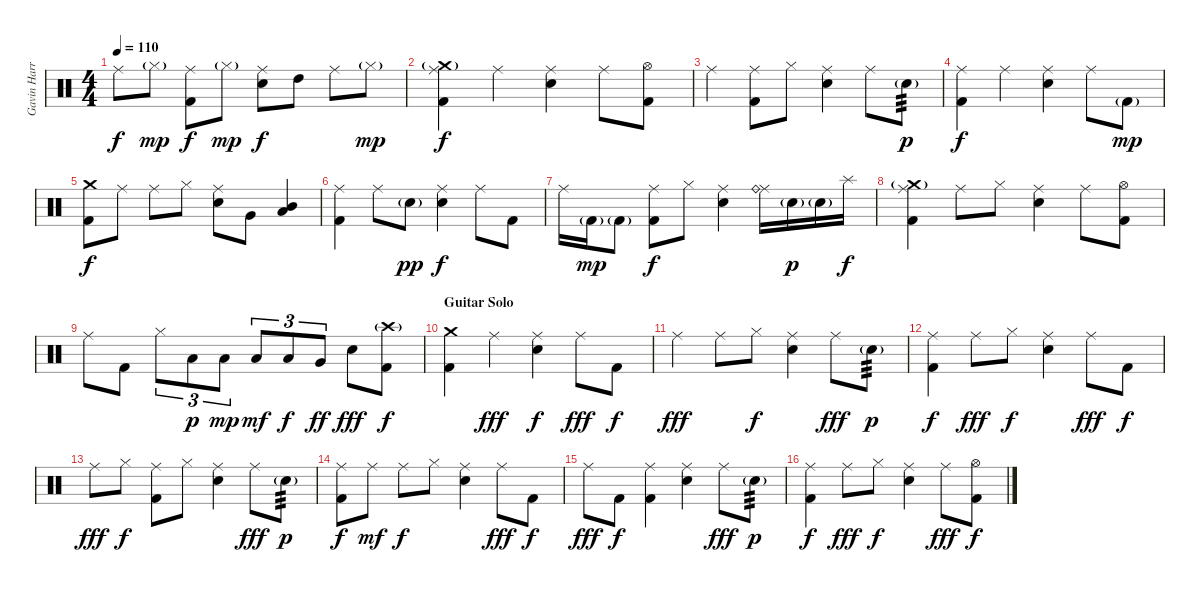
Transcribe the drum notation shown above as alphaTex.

\track ("Gavin Harrison - Drums" "Gavin Harr") {instrument percussion}
\staff {score}
\articulation defaults
\ts (4 4)
\tempo 110
\clef neutral
\ks c "Ride (middle)".8{dy f} "Hi-Hat (closed)"{g}.8{dy mp}
("Ride (middle)" "Kick (hit) 2").8{dy f} "Hi-Hat (closed)"{g}.8{dy mp} ("Ride (middle)" "Electric Snare (hit)").8{dy f} "High Tom (hit)".8 "Ride (middle)".8 "Hi-Hat (closed)"{g}.8{dy mp} |
("Ride (middle)" "Crash medium (hit)"{g} "Kick (hit) 2").4{dy f} "Ride (middle)".4 ("Ride (middle)" "Electric Snare (hit)").4 "Ride (middle)".8 ("Hi-Hat (open)" "Kick (hit) 2").8 |
"Ride (middle)".4 ("Ride (middle)" "Kick (hit) 2").8 "Hi-Hat (closed)".8 ("Ride (middle)" "Electric Snare (hit)").4 "Ride (middle)".8 "Electric Snare (hit)"{g}.8{tp 3 dy p} |
("Ride (middle)" "Kick (hit) 2").4{dy f} "Ride (middle)".4 ("Ride (middle)" "Electric Snare (hit)").4 "Ride (middle)".8 "Kick (hit) 2"{g}.8{dy mp} |
("Crash medium (hit)" "Kick (hit) 2").8{dy f} "Ride (middle)".8 "Ride (middle)".8 "Hi-Hat (closed)".8 ("Ride (middle)" "Electric Snare (hit)").8 "Very Low Tom (hit)".8 ("Mid Tom (hit)" "Low Tom (hit)").4 |
("Ride (middle)" "Kick (hit) 2").4 "Ride (middle)".8 "Electric Snare (hit)"{g}.8{dy pp} ("Ride (middle)" "Electric Snare (hit)").4{dy f} "Ride (middle)".8 "Kick (hit) 2".8 |
"Ride (middle)".16 "Kick (hit) 2"{g}.16{dy mp} "Kick (hit) 2"{g}.8 ("Ride (middle)" "Kick (hit) 2").8{dy f} "Hi-Hat (closed)".8 ("Ride (middle)" "Electric Snare (hit)").4 ("Ride (middle)" "Ride (bell)").16 "Electric Snare (hit)"{g}.16{dy p} "Electric Snare (hit)"{g}.16 "Splash (hit)".16{dy f} |
("Ride (middle)" "Crash medium (hit)"{g} "Kick (hit) 2").4 "Ride (middle)".8 "Hi-Hat (closed)".8 ("Ride (middle)" "Electric Snare (hit)").4 "Ride (middle)".8 ("Hi-Hat (open)" "Kick (hit) 2").8 |
"Ride (middle)".8 "Kick (hit) 2".8 "Hi-Hat (closed)".8{tu (3 2)} "Low Floor Tom (hit)".8{tu (3 2) dy p} "Low Floor Tom (hit)".8{tu (3 2) dy mp} "Low Floor Tom (hit)".8{tu (3 2) dy mf} "Low Floor Tom (hit)".8{tu (3 2) dy f} "Very Low Tom (hit)".8{tu (3 2) dy ff} "Electric Snare (hit)".8{dy fff} ("Crash high (hit)"{g} "Kick (hit) 2").8{dy f} |
\section ("" "Guitar Solo")
("Crash medium (hit)" "Kick (hit) 2").4 "Ride (middle)".4{dy fff} ("Ride (middle)" "Electric Snare (hit)").4{dy f} "Ride (middle)".8{dy fff} "Kick (hit) 2".8{dy f} |
"Ride (middle)".4{dy fff} "Ride (middle)".8 "Hi-Hat (closed)".8{dy f} ("Ride (middle)" "Electric Snare (hit)").4 "Ride (middle)".8{dy fff} "Electric Snare (hit)"{g}.8{tp 3 dy p} |
("Ride (middle)" "Kick (hit) 2").4{dy f} "Ride (middle)".8{dy fff} "Hi-Hat (closed)".8{dy f} ("Ride (middle)" "Electric Snare (hit)").4 "Ride (middle)".8{dy fff} "Kick (hit) 2".8{dy f} |
"Ride (middle)".8{dy fff} "Hi-Hat (closed)".8{dy f} ("Ride (middle)" "Kick (hit) 2").8 "Hi-Hat (closed)".8 ("Ride (middle)" "Electric Snare (hit)").4 "Ride (middle)".8{dy fff} "Electric Snare (hit)"{g}.8{tp 3 dy p} |
("Ride (middle)" "Kick (hit) 2").8{dy f} "Ride (middle)".8{dy mf} "Ride (middle)".8{dy f} "Hi-Hat (closed)".8 ("Ride (middle)" "Electric Snare (hit)").4 "Ride (middle)".8{dy fff} "Kick (hit) 2".8{dy f} |
"Ride (middle)".8{dy fff} "Kick (hit) 2".8{dy f} ("Ride (middle)" "Kick (hit) 2").4 ("Ride (middle)" "Electric Snare (hit)").4 "Ride (middle)".8{dy fff} "Electric Snare (hit)"{g}.8{tp 3 dy p} |
("Ride (middle)" "Kick (hit) 2").4{dy f} "Ride (middle)".8{dy fff} "Hi-Hat (closed)".8{dy f} ("Ride (middle)" "Electric Snare (hit)").4 "Ride (middle)".8{dy fff} ("Hi-Hat (open)" "Kick (hit) 2").8{dy f}
